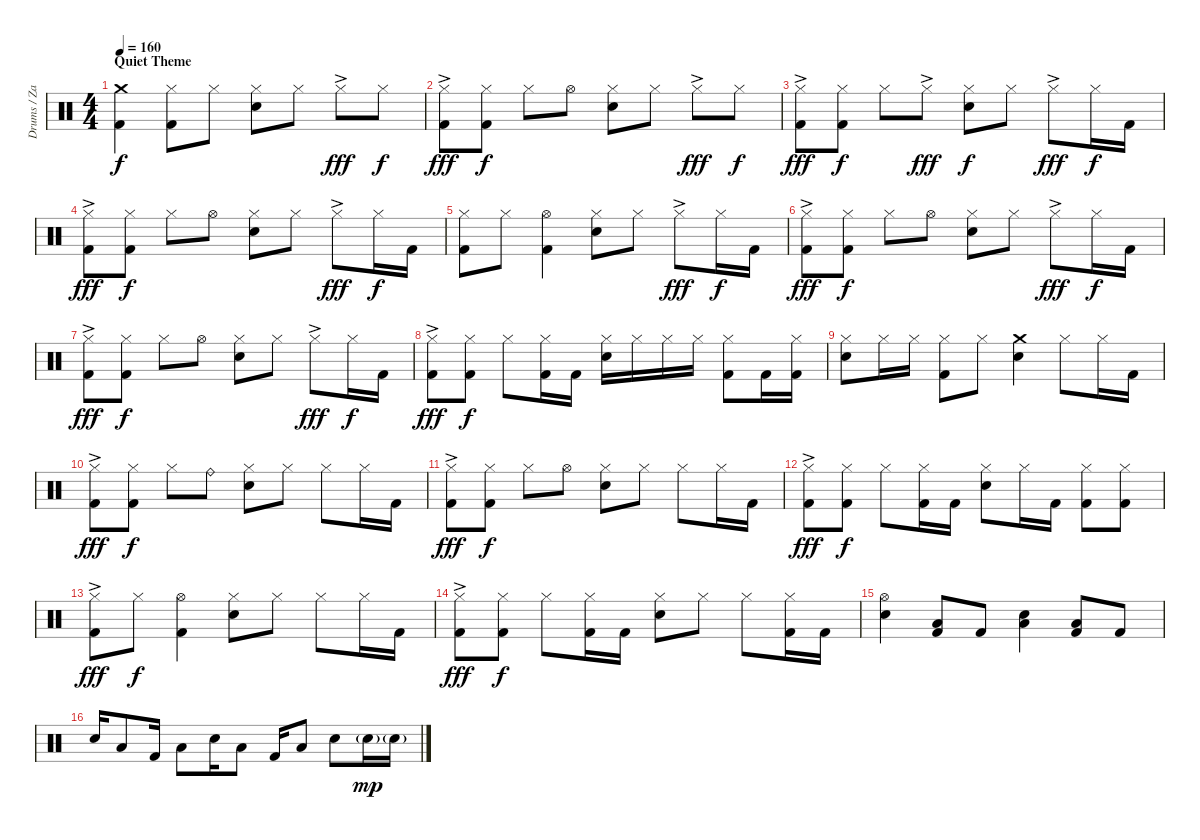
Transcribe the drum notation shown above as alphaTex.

\track ("Drums / Zac Hill" "Drums / Za") {instrument percussion}
\staff {score}
\articulation defaults
\ts (4 4)
\section ("" "Quiet Theme")
\tempo 160
\clef neutral
\ks c
("Crash medium (hit)" "Kick (hit) 2").4{dy f} ("Hi-Hat (closed)" "Kick (hit) 2").8 "Hi-Hat (closed)".8 ("Hi-Hat (closed)" "Electric Snare (hit)").8 "Hi-Hat (closed)".8 "Hi-Hat (closed)"{ac}.8{dy fff} "Hi-Hat (closed)".8{dy f} |
("Hi-Hat (closed)"{ac} "Kick (hit) 2").8{dy fff} ("Hi-Hat (closed)" "Kick (hit) 2").8{dy f} "Hi-Hat (closed)".8 "Hi-Hat (open)".8 ("Hi-Hat (closed)" "Electric Snare (hit)").8 "Hi-Hat (closed)".8 "Hi-Hat (closed)"{ac}.8{dy fff} "Hi-Hat (closed)".8{dy f} |
("Hi-Hat (closed)"{ac} "Kick (hit) 2").8{dy fff} ("Hi-Hat (closed)" "Kick (hit) 2").8{dy f} "Hi-Hat (closed)".8 "Hi-Hat (closed)"{ac}.8{dy fff} ("Hi-Hat (closed)" "Electric Snare (hit)").8{dy f} "Hi-Hat (closed)".8 "Hi-Hat (closed)"{ac}.8{dy fff} "Hi-Hat (closed)".16{dy f} "Kick (hit) 2".16 |
("Hi-Hat (closed)"{ac} "Kick (hit) 2").8{dy fff} ("Hi-Hat (closed)" "Kick (hit) 2").8{dy f} "Hi-Hat (closed)".8 "Hi-Hat (open)".8 ("Hi-Hat (closed)" "Electric Snare (hit)").8 "Hi-Hat (closed)".8 "Hi-Hat (closed)"{ac}.8{dy fff} "Hi-Hat (closed)".16{dy f} "Kick (hit) 2".16 |
("Hi-Hat (closed)" "Kick (hit) 2").8 "Hi-Hat (closed)".8 ("Hi-Hat (open)" "Kick (hit) 2").4 ("Hi-Hat (closed)" "Electric Snare (hit)").8 "Hi-Hat (closed)".8 "Hi-Hat (closed)"{ac}.8{dy fff} "Hi-Hat (closed)".16{dy f} "Kick (hit) 2".16 |
("Hi-Hat (closed)"{ac} "Kick (hit) 2").8{dy fff} ("Hi-Hat (closed)" "Kick (hit) 2").8{dy f} "Hi-Hat (closed)".8 "Hi-Hat (open)".8 ("Hi-Hat (closed)" "Electric Snare (hit)").8 "Hi-Hat (closed)".8 "Hi-Hat (closed)"{ac}.8{dy fff} "Hi-Hat (closed)".16{dy f} "Kick (hit) 2".16 |
("Hi-Hat (closed)"{ac} "Kick (hit) 2").8{dy fff} ("Hi-Hat (closed)" "Kick (hit) 2").8{dy f} "Hi-Hat (closed)".8 "Hi-Hat (open)".8 ("Hi-Hat (closed)" "Electric Snare (hit)").8 "Hi-Hat (closed)".8 "Hi-Hat (closed)"{ac}.8{dy fff} "Hi-Hat (closed)".16{dy f} "Kick (hit) 2".16 |
("Hi-Hat (closed)"{ac} "Kick (hit) 2").8{dy fff} ("Hi-Hat (closed)" "Kick (hit) 2").8{dy f} "Hi-Hat (closed)".8 ("Hi-Hat (closed)" "Kick (hit) 2").16 "Kick (hit) 2".16 ("Hi-Hat (closed)" "Electric Snare (hit)").16 "Hi-Hat (closed)".16 "Hi-Hat (closed)".16 "Hi-Hat (closed)".16 ("Hi-Hat (closed)" "Kick (hit) 2").8 "Kick (hit) 2".16 ("Hi-Hat (closed)" "Kick (hit) 2").16 |
("Hi-Hat (closed)" "Electric Snare (hit)").8 "Hi-Hat (closed)".16 "Hi-Hat (closed)".16 ("Hi-Hat (closed)" "Kick (hit) 2").8 "Hi-Hat (closed)".8 ("Crash medium (hit)" "Electric Snare (hit)").4 "Hi-Hat (closed)".8 "Hi-Hat (closed)".16 "Kick (hit) 2".16 |
("Hi-Hat (closed)"{ac} "Kick (hit) 2").8{dy fff} ("Hi-Hat (closed)" "Kick (hit) 2").8{dy f} "Hi-Hat (closed)".8 "Ride (bell)".8 ("Hi-Hat (closed)" "Electric Snare (hit)").8 "Hi-Hat (closed)".8 "Hi-Hat (closed)".8 "Hi-Hat (closed)".16 "Kick (hit) 2".16 |
("Hi-Hat (closed)"{ac} "Kick (hit) 2").8{dy fff} ("Hi-Hat (closed)" "Kick (hit) 2").8{dy f} "Hi-Hat (closed)".8 "Hi-Hat (open)".8 ("Hi-Hat (closed)" "Electric Snare (hit)").8 "Hi-Hat (closed)".8 "Hi-Hat (closed)".8 "Hi-Hat (closed)".16 "Kick (hit) 2".16 |
("Hi-Hat (closed)"{ac} "Kick (hit) 2").8{dy fff} ("Hi-Hat (closed)" "Kick (hit) 2").8{dy f} "Hi-Hat (closed)".8 ("Hi-Hat (closed)" "Kick (hit) 2").16 "Kick (hit) 2".16 ("Hi-Hat (closed)" "Electric Snare (hit)").8 "Hi-Hat (closed)".16 "Kick (hit) 2".16 ("Hi-Hat (closed)" "Kick (hit) 2").8 ("Hi-Hat (closed)" "Kick (hit) 2").8 |
("Hi-Hat (closed)"{ac} "Kick (hit) 2").8{dy fff} "Hi-Hat (closed)".8{dy f} ("Hi-Hat (open)" "Kick (hit) 2").4 ("Hi-Hat (closed)" "Electric Snare (hit)").8 "Hi-Hat (closed)".8 "Hi-Hat (closed)".8 "Hi-Hat (closed)".16 "Kick (hit) 2".16 |
("Hi-Hat (closed)"{ac} "Kick (hit) 2").8{dy fff} ("Hi-Hat (closed)" "Kick (hit) 2").8{dy f} "Hi-Hat (closed)".8 ("Hi-Hat (closed)" "Kick (hit) 2").16 "Kick (hit) 2".16 ("Hi-Hat (closed)" "Electric Snare (hit)").8 "Hi-Hat (closed)".8 "Hi-Hat (closed)".8 ("Hi-Hat (closed)" "Kick (hit) 2").16 "Kick (hit) 2".16 |
("Hi-Hat (open)" "Electric Snare (hit)").4 ("Low Tom (hit)" "Kick (hit) 2").8 "Kick (hit) 2".8 ("Low Tom (hit)" "Electric Snare (hit)").4 ("Low Tom (hit)" "Kick (hit) 2").8 "Kick (hit) 2".8 |
"Electric Snare (hit)".16 "Low Tom (hit)".8 "Kick (hit) 2".16 "Low Tom (hit)".8 "Electric Snare (hit)".16 "Low Tom (hit)".8 "Kick (hit) 2".16 "Low Tom (hit)".8 "Electric Snare (hit)".8 "Electric Snare (hit)"{g}.16{dy mp} "Electric Snare (hit)"{g}.16
